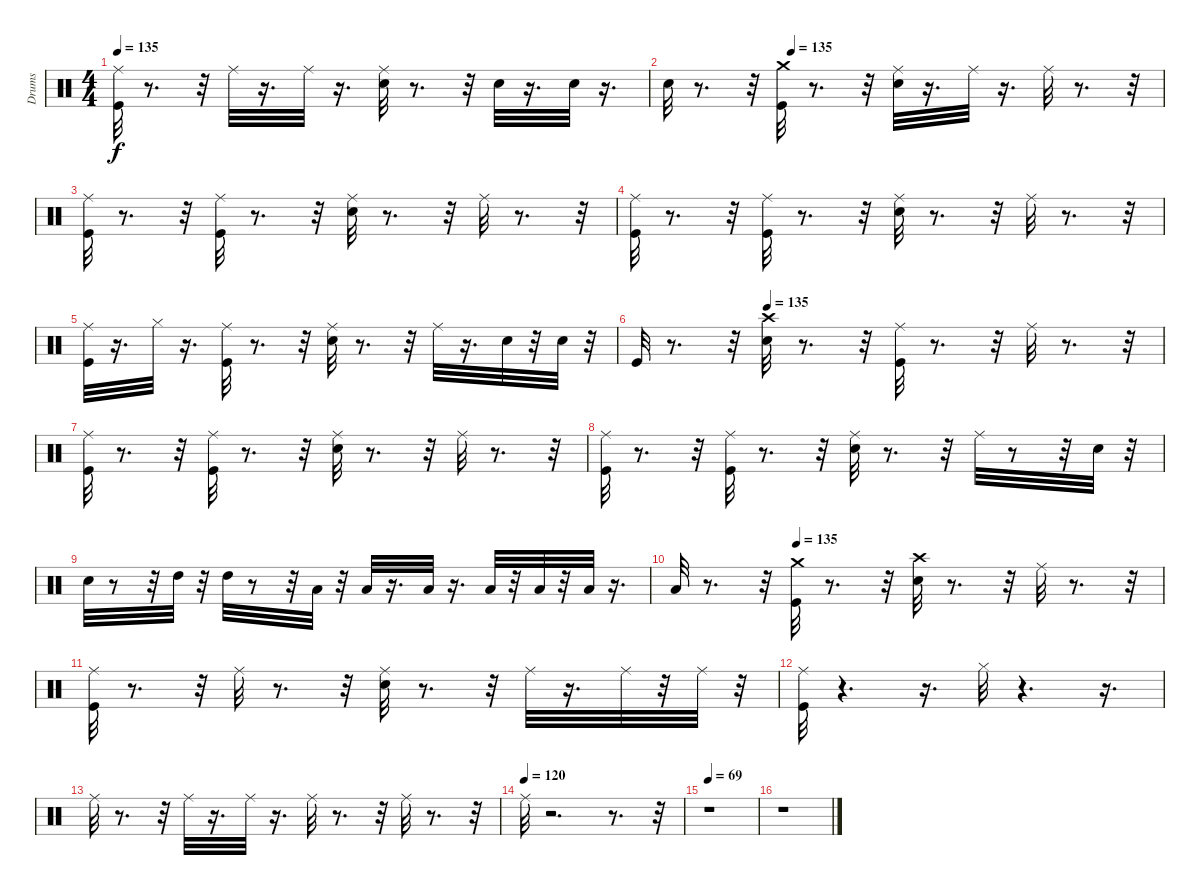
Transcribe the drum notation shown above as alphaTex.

\track ("Drums" "Drums") {instrument percussion}
\staff {score}
\articulation defaults
\ts (4 4)
\tempo 135
\clef neutral
\ks c
("Kick (hit)" "Ride (middle)").32{dy f} r.8{d} r.32 "Ride (middle)".32 r.16{d} "Ride (middle)".32 r.16{d} ("Ride (middle)" "Snare (hit) 2").32 r.8{d} r.32 "Snare (hit) 2".32 r.16{d} "Snare (hit) 2".32 r.16{d} |
\tempo (135 0.25)
"Snare (hit) 2".32 r.8{d} r.32 ("Crash medium (hit)" "Kick (hit)").32 r.8{d} r.32 ("Ride (middle)" "Snare (hit) 2").32 r.16{d} "Ride (middle)".32 r.16{d} "Ride (middle)".32 r.8{d} r.32 |
("Kick (hit)" "Ride (middle)").32 r.8{d} r.32 ("Kick (hit)" "Ride (middle)").32 r.8{d} r.32 ("Snare (hit) 2" "Ride (middle)").32 r.8{d} r.32 "Ride (middle)".32 r.8{d} r.32 |
("Ride (middle)" "Kick (hit)").32 r.8{d} r.32 ("Ride (middle)" "Kick (hit)").32 r.8{d} r.32 ("Ride (middle)" "Snare (hit) 2").32 r.8{d} r.32 "Ride (middle)".32 r.8{d} r.32 |
("Ride (middle)" "Kick (hit)").32 r.16{d} "Hi-Hat (closed)".32 r.16{d} ("Ride (middle)" "Kick (hit)").32 r.8{d} r.32 ("Ride (middle)" "Snare (hit) 2").32 r.8{d} r.32 "Ride (middle)".32 r.16{d} "Snare (hit) 2".32 r.32 "Snare (hit) 2".32 r.32 |
\tempo (135 0.25)
"Kick (hit)".32 r.8{d} r.32 ("Crash high (hit)" "Snare (hit) 2").32 r.8{d} r.32 ("Ride (middle)" "Kick (hit)").32 r.8{d} r.32 "Ride (middle)".32 r.8{d} r.32 |
("Kick (hit)" "Ride (middle)").32 r.8{d} r.32 ("Kick (hit)" "Ride (middle)").32 r.8{d} r.32 ("Snare (hit) 2" "Ride (middle)").32 r.8{d} r.32 "Ride (middle)".32 r.8{d} r.32 |
("Kick (hit)" "Ride (middle)").32 r.8{d} r.32 ("Kick (hit)" "Ride (middle)").32 r.8{d} r.32 ("Snare (hit) 2" "Ride (middle)").32 r.8{d} r.32 "Ride (middle)".32 r.8 r.32 "Snare (hit) 2".32 r.32 |
"Snare (hit) 2".32 r.8 r.32 "High Tom (hit)".32 r.32 "High Tom (hit)".32 r.8 r.32 "Low Tom (hit)".32 r.32 "Low Tom (hit)".32 r.16{d} "Low Tom (hit)".32 r.16{d} "Low Floor Tom (hit)".32 r.32 "Low Floor Tom (hit)".32 r.32 "Low Floor Tom (hit)".32 r.16{d} |
\tempo (135 0.25)
"Low Floor Tom (hit)".32 r.8{d} r.32 ("Crash medium (hit)" "Kick (hit)").32 r.8{d} r.32 ("Crash high (hit)" "Snare (hit) 2").32 r.8{d} r.32 "Ride (middle)".32 r.8{d} r.32 |
("Kick (hit)" "Ride (middle)").32 r.8{d} r.32 "Ride (middle)".32 r.8{d} r.32 ("Snare (hit) 2" "Ride (middle)").32 r.8{d} r.32 "Ride (middle)".32 r.16{d} "Ride (middle)".32 r.32 "Ride (middle)".32 r.32 |
("Kick (hit)" "Ride (middle)").32 r.4{d} r.16{d} "Hi-Hat (closed)".32 r.4{d} r.16{d} |
"Ride (middle)".32 r.8{d} r.32 "Ride (middle)".32 r.16{d} "Ride (middle)".32 r.16{d} "Ride (middle)".32 r.8{d} r.32 "Ride (middle)".32 r.8{d} r.32 |
\tempo (120)
"Ride (middle)".32 r.2{d} r.8{d} r.32 |
\tempo 69
r.1 |
r.1
